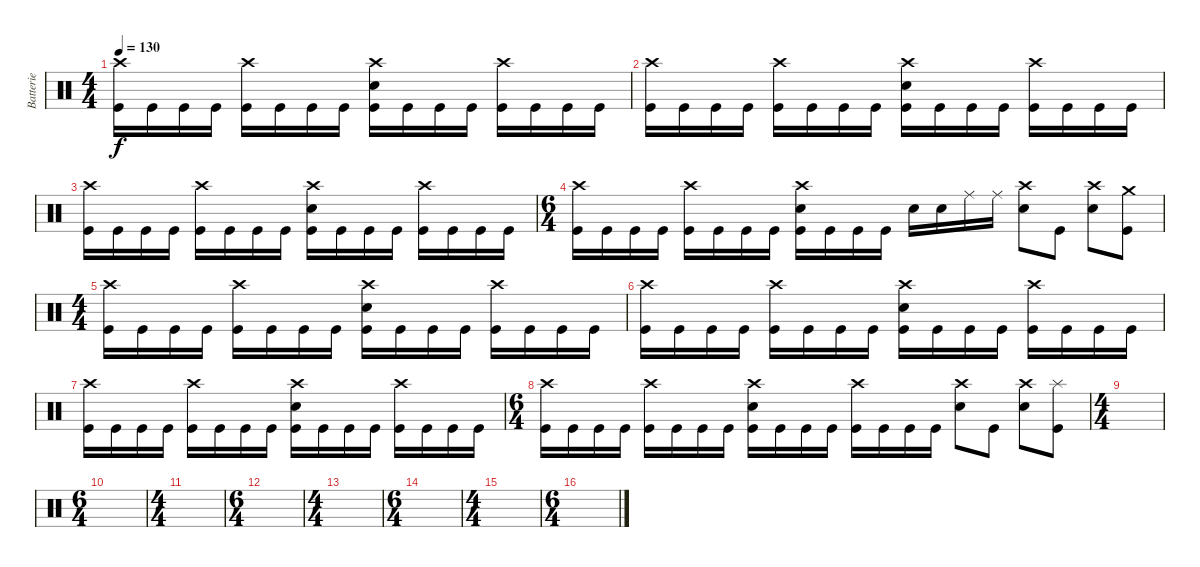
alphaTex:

\track ("Batterie" "Batterie") {instrument percussion}
\staff {score}
\articulation defaults
\ts (4 4)
\tempo 130
\clef neutral
\ks c
("Crash high (hit)" "Kick (hit)").16{dy f} "Kick (hit)".16 "Kick (hit)".16 "Kick (hit)".16 ("Crash high (hit)" "Kick (hit)").16 "Kick (hit)".16 "Kick (hit)".16 "Kick (hit)".16 ("Crash high (hit)" "Electric Snare (hit)" "Kick (hit)").16 "Kick (hit)".16 "Kick (hit)".16 "Kick (hit)".16 ("Crash high (hit)" "Kick (hit)").16 "Kick (hit)".16 "Kick (hit)".16 "Kick (hit)".16 |
("Crash high (hit)" "Kick (hit)").16 "Kick (hit)".16 "Kick (hit)".16 "Kick (hit)".16 ("Crash high (hit)" "Kick (hit)").16 "Kick (hit)".16 "Kick (hit)".16 "Kick (hit)".16 ("Crash high (hit)" "Electric Snare (hit)" "Kick (hit)").16 "Kick (hit)".16 "Kick (hit)".16 "Kick (hit)".16 ("Crash high (hit)" "Kick (hit)").16 "Kick (hit)".16 "Kick (hit)".16 "Kick (hit)".16 |
("Crash high (hit)" "Kick (hit)").16 "Kick (hit)".16 "Kick (hit)".16 "Kick (hit)".16 ("Crash high (hit)" "Kick (hit)").16 "Kick (hit)".16 "Kick (hit)".16 "Kick (hit)".16 ("Crash high (hit)" "Electric Snare (hit)" "Kick (hit)").16 "Kick (hit)".16 "Kick (hit)".16 "Kick (hit)".16 ("Crash high (hit)" "Kick (hit)").16 "Kick (hit)".16 "Kick (hit)".16 "Kick (hit)".16 |
\ts (6 4)
("Crash high (hit)" "Kick (hit)").16 "Kick (hit)".16 "Kick (hit)".16 "Kick (hit)".16 ("Crash high (hit)" "Kick (hit)").16 "Kick (hit)".16 "Kick (hit)".16 "Kick (hit)".16 ("Crash high (hit)" "Electric Snare (hit)" "Kick (hit)").16 "Kick (hit)".16 "Kick (hit)".16 "Kick (hit)".16 "Electric Snare (hit)".16 "Electric Snare (hit)".16 "Ride (middle)".16 "Ride (middle)".16 ("Crash high (hit)" "Electric Snare (hit)").8 "Kick (hit)".8 ("Crash high (hit)" "Electric Snare (hit)").8 ("Crash medium (hit)" "Kick (hit)").8 |
\ts (4 4)
("Crash high (hit)" "Kick (hit)").16 "Kick (hit)".16 "Kick (hit)".16 "Kick (hit)".16 ("Crash high (hit)" "Kick (hit)").16 "Kick (hit)".16 "Kick (hit)".16 "Kick (hit)".16 ("Crash high (hit)" "Electric Snare (hit)" "Kick (hit)").16 "Kick (hit)".16 "Kick (hit)".16 "Kick (hit)".16 ("Crash high (hit)" "Kick (hit)").16 "Kick (hit)".16 "Kick (hit)".16 "Kick (hit)".16 |
("Crash high (hit)" "Kick (hit)").16 "Kick (hit)".16 "Kick (hit)".16 "Kick (hit)".16 ("Crash high (hit)" "Kick (hit)").16 "Kick (hit)".16 "Kick (hit)".16 "Kick (hit)".16 ("Crash high (hit)" "Electric Snare (hit)" "Kick (hit)").16 "Kick (hit)".16 "Kick (hit)".16 "Kick (hit)".16 ("Crash high (hit)" "Kick (hit)").16 "Kick (hit)".16 "Kick (hit)".16 "Kick (hit)".16 |
("Crash high (hit)" "Kick (hit)").16 "Kick (hit)".16 "Kick (hit)".16 "Kick (hit)".16 ("Crash high (hit)" "Kick (hit)").16 "Kick (hit)".16 "Kick (hit)".16 "Kick (hit)".16 ("Crash high (hit)" "Electric Snare (hit)" "Kick (hit)").16 "Kick (hit)".16 "Kick (hit)".16 "Kick (hit)".16 ("Crash high (hit)" "Kick (hit)").16 "Kick (hit)".16 "Kick (hit)".16 "Kick (hit)".16 |
\ts (6 4)
("Crash high (hit)" "Kick (hit)").16 "Kick (hit)".16 "Kick (hit)".16 "Kick (hit)".16 ("Crash high (hit)" "Kick (hit)").16 "Kick (hit)".16 "Kick (hit)".16 "Kick (hit)".16 ("Crash high (hit)" "Electric Snare (hit)" "Kick (hit)").16 "Kick (hit)".16 "Kick (hit)".16 "Kick (hit)".16 ("Crash high (hit)" "Kick (hit)").16 "Kick (hit)".16 "Kick (hit)".16 "Kick (hit)".16 ("Crash high (hit)" "Electric Snare (hit)").8 "Kick (hit)".8 ("Crash high (hit)" "Electric Snare (hit)").8 ("Splash (hit)" "Kick (hit)").8 |
\ts (4 4)
|
\ts (6 4)
|
\ts (4 4)
|
\ts (6 4)
|
\ts (4 4)
|
\ts (6 4)
|
\ts (4 4)
|
\ts (6 4)
